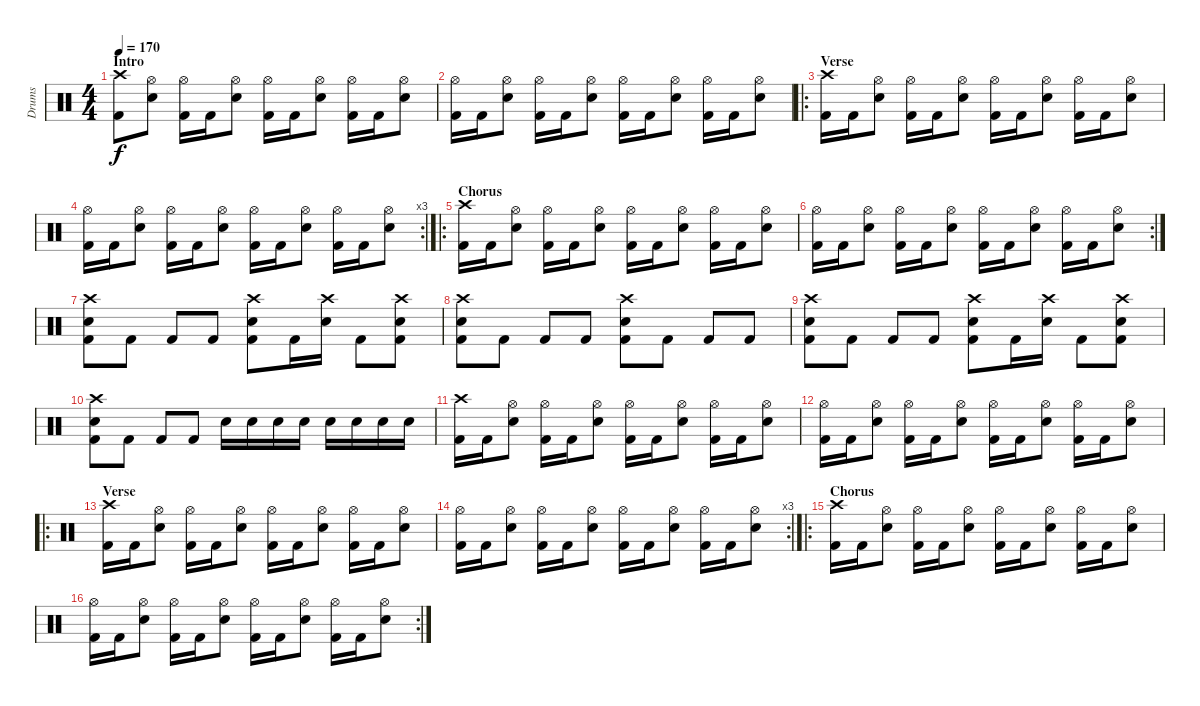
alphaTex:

\track ("Drums" "Drums") {instrument percussion}
\staff {score}
\articulation defaults
\ts (4 4)
\section ("" "Intro")
\tempo 170
\clef neutral
\ks c
("Crash high (hit)" "Kick (hit) 2").8{dy f} ("Hi-Hat (open)" "Electric Snare (hit)").8 ("Hi-Hat (open)" "Kick (hit) 2").16 "Kick (hit) 2".16 ("Hi-Hat (open)" "Electric Snare (hit)").8 ("Hi-Hat (open)" "Kick (hit) 2").16 "Kick (hit) 2".16 ("Hi-Hat (open)" "Electric Snare (hit)").8 ("Hi-Hat (open)" "Kick (hit) 2").16 "Kick (hit) 2".16 ("Hi-Hat (open)" "Electric Snare (hit)").8 |
("Hi-Hat (open)" "Kick (hit) 2").16 "Kick (hit) 2".16 ("Hi-Hat (open)" "Electric Snare (hit)").8 ("Hi-Hat (open)" "Kick (hit) 2").16 "Kick (hit) 2".16 ("Hi-Hat (open)" "Electric Snare (hit)").8 ("Hi-Hat (open)" "Kick (hit) 2").16 "Kick (hit) 2".16 ("Hi-Hat (open)" "Electric Snare (hit)").8 ("Hi-Hat (open)" "Kick (hit) 2").16 "Kick (hit) 2".16 ("Hi-Hat (open)" "Electric Snare (hit)").8 |
\ro
\section ("" "Verse")
("Crash high (hit)" "Kick (hit) 2").16 "Kick (hit) 2".16 ("Hi-Hat (open)" "Electric Snare (hit)").8 ("Hi-Hat (open)" "Kick (hit) 2").16 "Kick (hit) 2".16 ("Hi-Hat (open)" "Electric Snare (hit)").8 ("Hi-Hat (open)" "Kick (hit) 2").16 "Kick (hit) 2".16 ("Hi-Hat (open)" "Electric Snare (hit)").8 ("Hi-Hat (open)" "Kick (hit) 2").16 "Kick (hit) 2".16 ("Hi-Hat (open)" "Electric Snare (hit)").8 |
\rc 3
("Hi-Hat (open)" "Kick (hit) 2").16 "Kick (hit) 2".16 ("Hi-Hat (open)" "Electric Snare (hit)").8 ("Hi-Hat (open)" "Kick (hit) 2").16 "Kick (hit) 2".16 ("Hi-Hat (open)" "Electric Snare (hit)").8 ("Hi-Hat (open)" "Kick (hit) 2").16 "Kick (hit) 2".16 ("Hi-Hat (open)" "Electric Snare (hit)").8 ("Hi-Hat (open)" "Kick (hit) 2").16 "Kick (hit) 2".16 ("Hi-Hat (open)" "Electric Snare (hit)").8 |
\ro
\section ("" "Chorus")
("Crash high (hit)" "Kick (hit) 2").16 "Kick (hit) 2".16 ("Hi-Hat (open)" "Electric Snare (hit)").8 ("Hi-Hat (open)" "Kick (hit) 2").16 "Kick (hit) 2".16 ("Hi-Hat (open)" "Electric Snare (hit)").8 ("Hi-Hat (open)" "Kick (hit) 2").16 "Kick (hit) 2".16 ("Hi-Hat (open)" "Electric Snare (hit)").8 ("Hi-Hat (open)" "Kick (hit) 2").16 "Kick (hit) 2".16 ("Hi-Hat (open)" "Electric Snare (hit)").8 |
\rc 2
("Hi-Hat (open)" "Kick (hit) 2").16 "Kick (hit) 2".16 ("Hi-Hat (open)" "Electric Snare (hit)").8 ("Hi-Hat (open)" "Kick (hit) 2").16 "Kick (hit) 2".16 ("Hi-Hat (open)" "Electric Snare (hit)").8 ("Hi-Hat (open)" "Kick (hit) 2").16 "Kick (hit) 2".16 ("Hi-Hat (open)" "Electric Snare (hit)").8 ("Hi-Hat (open)" "Kick (hit) 2").16 "Kick (hit) 2".16 ("Hi-Hat (open)" "Electric Snare (hit)").8 |
("Crash high (hit)" "Electric Snare (hit)" "Kick (hit) 2").8 "Kick (hit) 2".8 "Kick (hit) 2".8 "Kick (hit) 2".8 ("Crash high (hit)" "Electric Snare (hit)" "Kick (hit) 2").8 "Kick (hit) 2".16 ("Crash high (hit)" "Electric Snare (hit)").16 "Kick (hit) 2".8 ("Crash high (hit)" "Electric Snare (hit)" "Kick (hit) 2").8 |
("Crash high (hit)" "Electric Snare (hit)" "Kick (hit) 2").8 "Kick (hit) 2".8 "Kick (hit) 2".8 "Kick (hit) 2".8 ("Crash high (hit)" "Electric Snare (hit)" "Kick (hit) 2").8 "Kick (hit) 2".8 "Kick (hit) 2".8 "Kick (hit) 2".8 |
("Crash high (hit)" "Electric Snare (hit)" "Kick (hit) 2").8 "Kick (hit) 2".8 "Kick (hit) 2".8 "Kick (hit) 2".8 ("Crash high (hit)" "Electric Snare (hit)" "Kick (hit) 2").8 "Kick (hit) 2".16 ("Crash high (hit)" "Electric Snare (hit)").16 "Kick (hit) 2".8 ("Crash high (hit)" "Electric Snare (hit)" "Kick (hit) 2").8 |
("Crash high (hit)" "Electric Snare (hit)" "Kick (hit) 2").8 "Kick (hit) 2".8 "Kick (hit) 2".8 "Kick (hit) 2".8 "Electric Snare (hit)".16 "Electric Snare (hit)".16 "Electric Snare (hit)".16 "Electric Snare (hit)".16 "Electric Snare (hit)".16 "Electric Snare (hit)".16 "Electric Snare (hit)".16 "Electric Snare (hit)".16 |
("Crash high (hit)" "Kick (hit) 2").16 "Kick (hit) 2".16 ("Hi-Hat (open)" "Electric Snare (hit)").8 ("Hi-Hat (open)" "Kick (hit) 2").16 "Kick (hit) 2".16 ("Hi-Hat (open)" "Electric Snare (hit)").8 ("Hi-Hat (open)" "Kick (hit) 2").16 "Kick (hit) 2".16 ("Hi-Hat (open)" "Electric Snare (hit)").8 ("Hi-Hat (open)" "Kick (hit) 2").16 "Kick (hit) 2".16 ("Hi-Hat (open)" "Electric Snare (hit)").8 |
("Hi-Hat (open)" "Kick (hit) 2").16 "Kick (hit) 2".16 ("Hi-Hat (open)" "Electric Snare (hit)").8 ("Hi-Hat (open)" "Kick (hit) 2").16 "Kick (hit) 2".16 ("Hi-Hat (open)" "Electric Snare (hit)").8 ("Hi-Hat (open)" "Kick (hit) 2").16 "Kick (hit) 2".16 ("Hi-Hat (open)" "Electric Snare (hit)").8 ("Hi-Hat (open)" "Kick (hit) 2").16 "Kick (hit) 2".16 ("Hi-Hat (open)" "Electric Snare (hit)").8 |
\ro
\section ("" "Verse")
("Crash high (hit)" "Kick (hit) 2").16 "Kick (hit) 2".16 ("Hi-Hat (open)" "Electric Snare (hit)").8 ("Hi-Hat (open)" "Kick (hit) 2").16 "Kick (hit) 2".16 ("Hi-Hat (open)" "Electric Snare (hit)").8 ("Hi-Hat (open)" "Kick (hit) 2").16 "Kick (hit) 2".16 ("Hi-Hat (open)" "Electric Snare (hit)").8 ("Hi-Hat (open)" "Kick (hit) 2").16 "Kick (hit) 2".16 ("Hi-Hat (open)" "Electric Snare (hit)").8 |
\rc 3
("Hi-Hat (open)" "Kick (hit) 2").16 "Kick (hit) 2".16 ("Hi-Hat (open)" "Electric Snare (hit)").8 ("Hi-Hat (open)" "Kick (hit) 2").16 "Kick (hit) 2".16 ("Hi-Hat (open)" "Electric Snare (hit)").8 ("Hi-Hat (open)" "Kick (hit) 2").16 "Kick (hit) 2".16 ("Hi-Hat (open)" "Electric Snare (hit)").8 ("Hi-Hat (open)" "Kick (hit) 2").16 "Kick (hit) 2".16 ("Hi-Hat (open)" "Electric Snare (hit)").8 |
\ro
\section ("" "Chorus")
("Crash high (hit)" "Kick (hit) 2").16 "Kick (hit) 2".16 ("Hi-Hat (open)" "Electric Snare (hit)").8 ("Hi-Hat (open)" "Kick (hit) 2").16 "Kick (hit) 2".16 ("Hi-Hat (open)" "Electric Snare (hit)").8 ("Hi-Hat (open)" "Kick (hit) 2").16 "Kick (hit) 2".16 ("Hi-Hat (open)" "Electric Snare (hit)").8 ("Hi-Hat (open)" "Kick (hit) 2").16 "Kick (hit) 2".16 ("Hi-Hat (open)" "Electric Snare (hit)").8 |
\rc 2
("Hi-Hat (open)" "Kick (hit) 2").16 "Kick (hit) 2".16 ("Hi-Hat (open)" "Electric Snare (hit)").8 ("Hi-Hat (open)" "Kick (hit) 2").16 "Kick (hit) 2".16 ("Hi-Hat (open)" "Electric Snare (hit)").8 ("Hi-Hat (open)" "Kick (hit) 2").16 "Kick (hit) 2".16 ("Hi-Hat (open)" "Electric Snare (hit)").8 ("Hi-Hat (open)" "Kick (hit) 2").16 "Kick (hit) 2".16 ("Hi-Hat (open)" "Electric Snare (hit)").8
